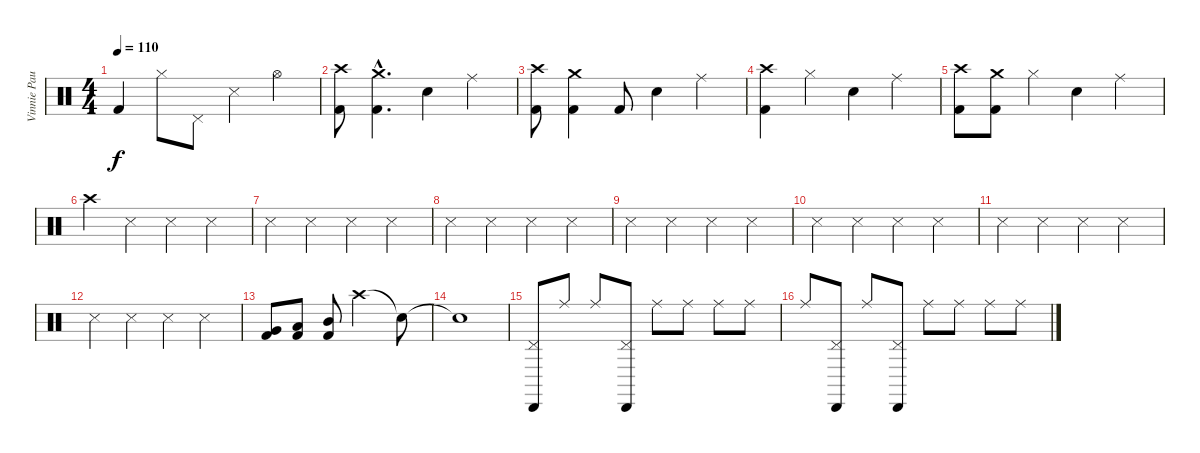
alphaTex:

\track ("Vinnie Paul" "Vinnie Pau") {instrument percussion}
\staff {score}
\articulation defaults
\ts (4 4)
\tempo 110
\clef neutral
\ks c "Kick (hit) 2".4{dy f} "Hi-Hat (closed)".8 "Pedal Hi-Hat (hit)".8 "Snare (side stick) 3".4 "Hi-Hat (open)".4
|
("Crash high (hit)" "Kick (hit) 2").8 ("Crash medium (hit)"{hac} "Kick (hit) 2"{hac}).4{d} "Electric Snare (hit)".4 "Ride (middle)".4 |
("Crash high (hit)" "Kick (hit) 2").8 ("Crash medium (hit)" "Kick (hit) 2").4 "Kick (hit) 2".8 "Electric Snare (hit)".4 "Ride (middle)".4 |
("Crash high (hit)" "Kick (hit) 2").4 "Hi-Hat (closed)".4 "Electric Snare (hit)".4 "Ride (middle)".4 |
("Crash high (hit)" "Kick (hit) 2").8 ("Crash medium (hit)" "Kick (hit) 2").8 "Hi-Hat (closed)".4 "Electric Snare (hit)".4 "Ride (middle)".4 |
"Crash high (hit)".4 "Snare (side stick) 3".4 "Snare (side stick) 3".4 "Snare (side stick) 3".4 |
"Snare (side stick) 3".4 "Snare (side stick) 3".4 "Snare (side stick) 3".4 "Snare (side stick) 3".4 |
"Snare (side stick) 3".4 "Snare (side stick) 3".4 "Snare (side stick) 3".4 "Snare (side stick) 3".4 |
"Snare (side stick) 3".4 "Snare (side stick) 3".4 "Snare (side stick) 3".4 "Snare (side stick) 3".4 |
"Snare (side stick) 3".4 "Snare (side stick) 3".4 "Snare (side stick) 3".4 "Snare (side stick) 3".4 |
"Snare (side stick) 3".4 "Snare (side stick) 3".4 "Snare (side stick) 3".4 "Snare (side stick) 3".4 |
"Snare (side stick) 3".4 "Snare (side stick) 3".4 "Snare (side stick) 3".4 "Snare (side stick) 3".4 |
("Very Low Tom (hit)" "Kick (hit) 2").8 ("Low Tom (hit)" "Kick (hit) 2").8 ("Mid Tom (hit)" "Kick (hit) 2").8 "Crash high (hit)".2 "Snare (hit)"{t}.8 |
"Snare (hit)"{t}.1 |
("Cabasa (hit)" "Pedal Hi-Hat (hit)").8 "Ride (middle)".8 "Ride (middle)".8 ("Cabasa (hit)" "Pedal Hi-Hat (hit)").8 "Ride (middle)".8 "Ride (middle)".8 "Ride (middle)".8 "Ride (middle)".8 |
"Ride (middle)".8 ("Cabasa (hit)" "Pedal Hi-Hat (hit)").8 "Ride (middle)".8 ("Cabasa (hit)" "Pedal Hi-Hat (hit)").8 "Ride (middle)".8 "Ride (middle)".8 "Ride (middle)".8 "Ride (middle)".8
